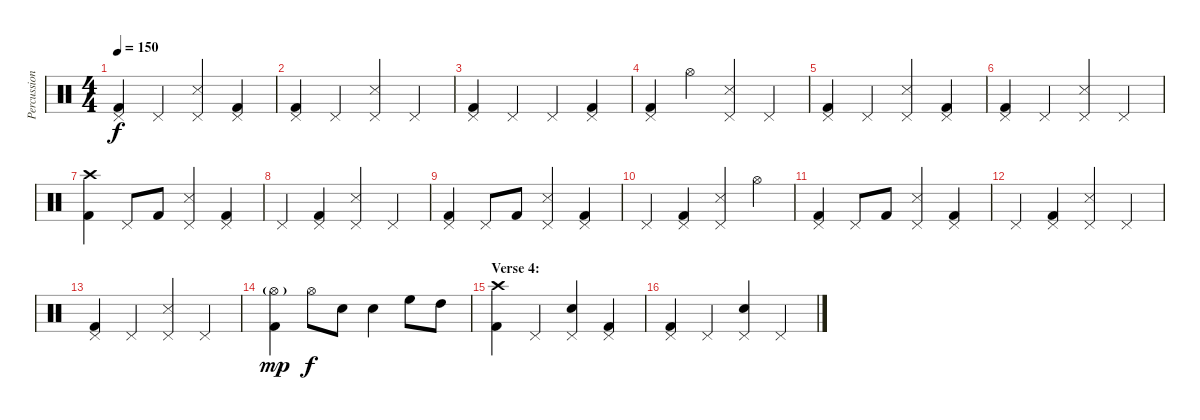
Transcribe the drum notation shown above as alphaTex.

\track ("Percussion" "Percussion") {instrument percussion}
\staff {score}
\articulation defaults
\ts (4 4)
\tempo 150
\clef neutral
\ks c
("Pedal Hi-Hat (hit)" "Kick (hit) 2").4{dy f} "Pedal Hi-Hat (hit)".4 ("Pedal Hi-Hat (hit)" "Snare (side stick) 3").4 ("Pedal Hi-Hat (hit)" "Kick (hit) 2").4 |
("Pedal Hi-Hat (hit)" "Kick (hit) 2").4 "Pedal Hi-Hat (hit)".4 ("Pedal Hi-Hat (hit)" "Snare (side stick) 3").4 "Pedal Hi-Hat (hit)".4 |
("Pedal Hi-Hat (hit)" "Kick (hit) 2").4 "Pedal Hi-Hat (hit)".4 "Pedal Hi-Hat (hit)".4 ("Pedal Hi-Hat (hit)" "Kick (hit) 2").4 |
("Pedal Hi-Hat (hit)" "Kick (hit) 2").4 "Hi-Hat (open)".4 ("Pedal Hi-Hat (hit)" "Snare (side stick) 3").4 "Pedal Hi-Hat (hit)".4 |
("Pedal Hi-Hat (hit)" "Kick (hit) 2").4 "Pedal Hi-Hat (hit)".4 ("Pedal Hi-Hat (hit)" "Snare (side stick) 3").4 ("Pedal Hi-Hat (hit)" "Kick (hit) 2").4 |
("Pedal Hi-Hat (hit)" "Kick (hit) 2").4 "Pedal Hi-Hat (hit)".4 ("Pedal Hi-Hat (hit)" "Snare (side stick) 3").4 "Pedal Hi-Hat (hit)".4 |
("Crash high (hit)" "Kick (hit) 2").4 "Pedal Hi-Hat (hit)".8 "Kick (hit) 2".8 ("Pedal Hi-Hat (hit)" "Snare (side stick) 3").4 ("Pedal Hi-Hat (hit)" "Kick (hit) 2").4 |
"Pedal Hi-Hat (hit)".4 ("Pedal Hi-Hat (hit)" "Kick (hit) 2").4 ("Pedal Hi-Hat (hit)" "Snare (side stick) 3").4 "Pedal Hi-Hat (hit)".4 |
("Pedal Hi-Hat (hit)" "Kick (hit) 2").4 "Pedal Hi-Hat (hit)".8 "Kick (hit) 2".8 ("Pedal Hi-Hat (hit)" "Snare (side stick) 3").4 ("Pedal Hi-Hat (hit)" "Kick (hit) 2").4 |
"Pedal Hi-Hat (hit)".4 ("Pedal Hi-Hat (hit)" "Kick (hit) 2").4 ("Pedal Hi-Hat (hit)" "Snare (side stick) 3").4 "Hi-Hat (open)".4 |
("Pedal Hi-Hat (hit)" "Kick (hit) 2").4 "Pedal Hi-Hat (hit)".8 "Kick (hit) 2".8 ("Pedal Hi-Hat (hit)" "Snare (side stick) 3").4 ("Pedal Hi-Hat (hit)" "Kick (hit) 2").4 |
"Pedal Hi-Hat (hit)".4 ("Pedal Hi-Hat (hit)" "Kick (hit) 2").4 ("Pedal Hi-Hat (hit)" "Snare (side stick) 3").4 "Pedal Hi-Hat (hit)".4 |
("Pedal Hi-Hat (hit)" "Kick (hit) 2").4 "Pedal Hi-Hat (hit)".4 ("Pedal Hi-Hat (hit)" "Snare (side stick) 3").4 "Pedal Hi-Hat (hit)".4 |
("Hi-Hat (open)"{g} "Kick (hit) 2").4{dy mp} "Hi-Hat (open)".8{dy f} "Electric Snare (hit)".8 "Electric Snare (hit)".4 "High Floor Tom (hit)".8 "High Tom (hit)".8 |
\section ("" "Verse 4:")
("Crash high (hit)" "Kick (hit) 2").4 "Pedal Hi-Hat (hit)".4 ("Pedal Hi-Hat (hit)" "Electric Snare (hit)").4 ("Pedal Hi-Hat (hit)" "Kick (hit) 2").4 |
("Pedal Hi-Hat (hit)" "Kick (hit) 2").4 "Pedal Hi-Hat (hit)".4 ("Pedal Hi-Hat (hit)" "Electric Snare (hit)").4 "Pedal Hi-Hat (hit)".4
